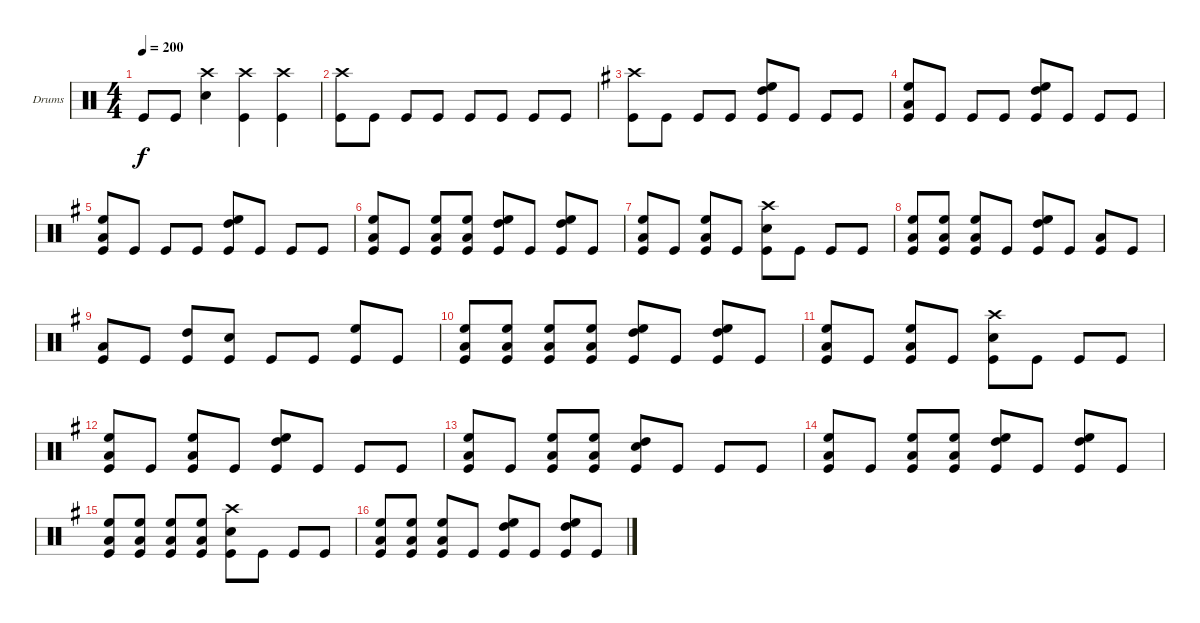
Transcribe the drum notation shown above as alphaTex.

\bracketExtendMode groupsimilarinstruments
\firstSystemTrackNameOrientation horizontal
\otherSystemsTrackNameOrientation horizontal
\track ("Drumkit" "Drums") {instrument percussion}
\staff {score}
\articulation defaults
\ts (4 4)
\tempo 200
\clef neutral
\ks c "Kick (hit)".8{dy f} "Kick (hit)".8
("Snare (hit) 2" "Crash high (hit)").4 ("Kick (hit)" "Crash high (hit)").4 ("Kick (hit)" "Crash high (hit)").4 |
("Crash high (hit)" "Kick (hit)").8 "Kick (hit)".8 "Kick (hit)".8 "Kick (hit)".8 "Kick (hit)".8 "Kick (hit)".8 "Kick (hit)".8 "Kick (hit)".8 |
\ks g
("Kick (hit)" "Crash high (hit)").8 "Kick (hit)".8 "Kick (hit)".8 "Kick (hit)".8 ("High Floor Tom (hit)" "High Tom (hit)" "Kick (hit)").8 "Kick (hit)".8 "Kick (hit)".8 "Kick (hit)".8 |
("Low Tom (hit)" "High Floor Tom (hit)" "Kick (hit)").8 "Kick (hit)".8 "Kick (hit)".8 "Kick (hit)".8 ("High Tom (hit)" "High Floor Tom (hit)" "Kick (hit)").8 "Kick (hit)".8 "Kick (hit)".8 "Kick (hit)".8 |
("Low Tom (hit)" "High Floor Tom (hit)" "Kick (hit)").8 "Kick (hit)".8 "Kick (hit)".8 "Kick (hit)".8 ("High Tom (hit)" "High Floor Tom (hit)" "Kick (hit)").8 "Kick (hit)".8 "Kick (hit)".8 "Kick (hit)".8 |
("High Floor Tom (hit)" "Low Tom (hit)" "Kick (hit)").8 "Kick (hit)".8 ("High Floor Tom (hit)" "Low Tom (hit)" "Kick (hit)").8 ("High Floor Tom (hit)" "Low Tom (hit)" "Kick (hit)").8 ("High Tom (hit)" "High Floor Tom (hit)" "Kick (hit)").8 "Kick (hit)".8 ("High Tom (hit)" "High Floor Tom (hit)" "Kick (hit)").8 "Kick (hit)".8 |
("Low Tom (hit)" "High Floor Tom (hit)" "Kick (hit)").8 "Kick (hit)".8 ("Low Tom (hit)" "High Floor Tom (hit)" "Kick (hit)").8 "Kick (hit)".8 ("Crash high (hit)" "Snare (hit) 2" "Kick (hit)").8 "Kick (hit)".8 "Kick (hit)".8 "Kick (hit)".8 |
("Low Tom (hit)" "High Floor Tom (hit)" "Kick (hit)").8 ("Low Tom (hit)" "High Floor Tom (hit)" "Kick (hit)").8 ("Low Tom (hit)" "High Floor Tom (hit)" "Kick (hit)").8 "Kick (hit)".8 ("High Tom (hit)" "High Floor Tom (hit)" "Kick (hit)").8 "Kick (hit)".8 ("Low Tom (hit)" "Kick (hit)").8 "Kick (hit)".8 |
("Low Tom (hit)" "Kick (hit)").8 "Kick (hit)".8 ("High Tom (hit)" "Kick (hit)").8 ("Snare (hit) 2" "Kick (hit)").8 "Kick (hit)".8 "Kick (hit)".8 ("High Floor Tom (hit)" "Kick (hit)").8 "Kick (hit)".8 |
("High Floor Tom (hit)" "Low Tom (hit)" "Kick (hit)").8 ("Low Tom (hit)" "High Floor Tom (hit)" "Kick (hit)").8 ("High Floor Tom (hit)" "Low Tom (hit)" "Kick (hit)").8 ("High Floor Tom (hit)" "Low Tom (hit)" "Kick (hit)").8 ("High Tom (hit)" "High Floor Tom (hit)" "Kick (hit)").8 "Kick (hit)".8 ("High Tom (hit)" "High Floor Tom (hit)" "Kick (hit)").8 "Kick (hit)".8 |
("Low Tom (hit)" "High Floor Tom (hit)" "Kick (hit)").8 "Kick (hit)".8 ("Low Tom (hit)" "High Floor Tom (hit)" "Kick (hit)").8 "Kick (hit)".8 ("Crash high (hit)" "Snare (hit) 2" "Kick (hit)").8 "Kick (hit)".8 "Kick (hit)".8 "Kick (hit)".8 |
("Low Tom (hit)" "High Floor Tom (hit)" "Kick (hit)").8 "Kick (hit)".8 ("Low Tom (hit)" "High Floor Tom (hit)" "Kick (hit)").8 "Kick (hit)".8 ("High Tom (hit)" "High Floor Tom (hit)" "Kick (hit)").8 "Kick (hit)".8 "Kick (hit)".8 "Kick (hit)".8 |
("Low Tom (hit)" "High Floor Tom (hit)" "Kick (hit)").8 "Kick (hit)".8 ("High Floor Tom (hit)" "Low Tom (hit)" "Kick (hit)").8 ("High Floor Tom (hit)" "Low Tom (hit)" "Kick (hit)").8 ("Snare (hit) 2" "High Tom (hit)" "Kick (hit)").8 "Kick (hit)".8 "Kick (hit)".8 "Kick (hit)".8 |
("High Floor Tom (hit)" "Low Tom (hit)" "Kick (hit)").8 "Kick (hit)".8 ("High Floor Tom (hit)" "Low Tom (hit)" "Kick (hit)").8 ("High Floor Tom (hit)" "Low Tom (hit)" "Kick (hit)").8 ("High Tom (hit)" "High Floor Tom (hit)" "Kick (hit)").8 "Kick (hit)".8 ("High Tom (hit)" "High Floor Tom (hit)" "Kick (hit)").8 "Kick (hit)".8 |
("High Floor Tom (hit)" "Low Tom (hit)" "Kick (hit)").8 ("Low Tom (hit)" "High Floor Tom (hit)" "Kick (hit)").8 ("High Floor Tom (hit)" "Low Tom (hit)" "Kick (hit)").8 ("High Floor Tom (hit)" "Low Tom (hit)" "Kick (hit)").8 ("Snare (hit) 2" "Crash high (hit)" "Kick (hit)").8 "Kick (hit)".8 "Kick (hit)".8 "Kick (hit)".8 |
("Low Tom (hit)" "High Floor Tom (hit)" "Kick (hit)").8 ("Low Tom (hit)" "High Floor Tom (hit)" "Kick (hit)").8 ("Low Tom (hit)" "High Floor Tom (hit)" "Kick (hit)").8 "Kick (hit)".8 ("High Floor Tom (hit)" "High Tom (hit)" "Kick (hit)").8 "Kick (hit)".8 ("High Floor Tom (hit)" "High Tom (hit)" "Kick (hit)").8 "Kick (hit)".8
